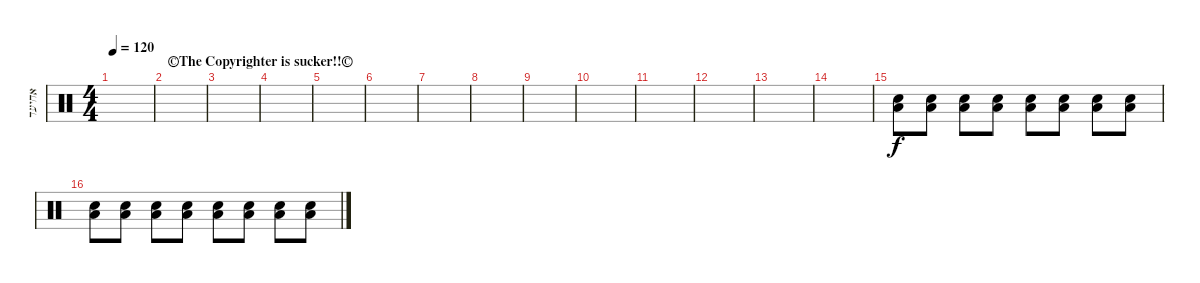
\track ("אחיעד" "אחיעד") {instrument percussion}
\staff {score}
\articulation defaults
\ts (4 4)
\tempo 120
\clef neutral
\ks c
|
\section ("" "©The Copyrighter is sucker!!©")
|
|
|
|
|
|
|
|
|
|
|
|
|
("Low Tom (hit)" "Snare (hit) 2").8{volume 6} ("Low Tom (hit)" "Snare (hit) 2").8 ("Low Tom (hit)" "Snare (hit) 2").8 ("Low Tom (hit)" "Snare (hit) 2").8 ("Low Tom (hit)" "Snare (hit) 2").8{volume 10} ("Low Tom (hit)" "Snare (hit) 2").8 ("Low Tom (hit)" "Snare (hit) 2").8 ("Low Tom (hit)" "Snare (hit) 2").8 |
("Low Tom (hit)" "Snare (hit) 2").8{volume 12} ("Low Tom (hit)" "Snare (hit) 2").8 ("Low Tom (hit)" "Snare (hit) 2").8 ("Low Tom (hit)" "Snare (hit) 2").8 ("Low Tom (hit)" "Snare (hit) 2").8{volume 15} ("Low Tom (hit)" "Snare (hit) 2").8 ("Low Tom (hit)" "Snare (hit) 2").8 ("Low Tom (hit)" "Snare (hit) 2").8
